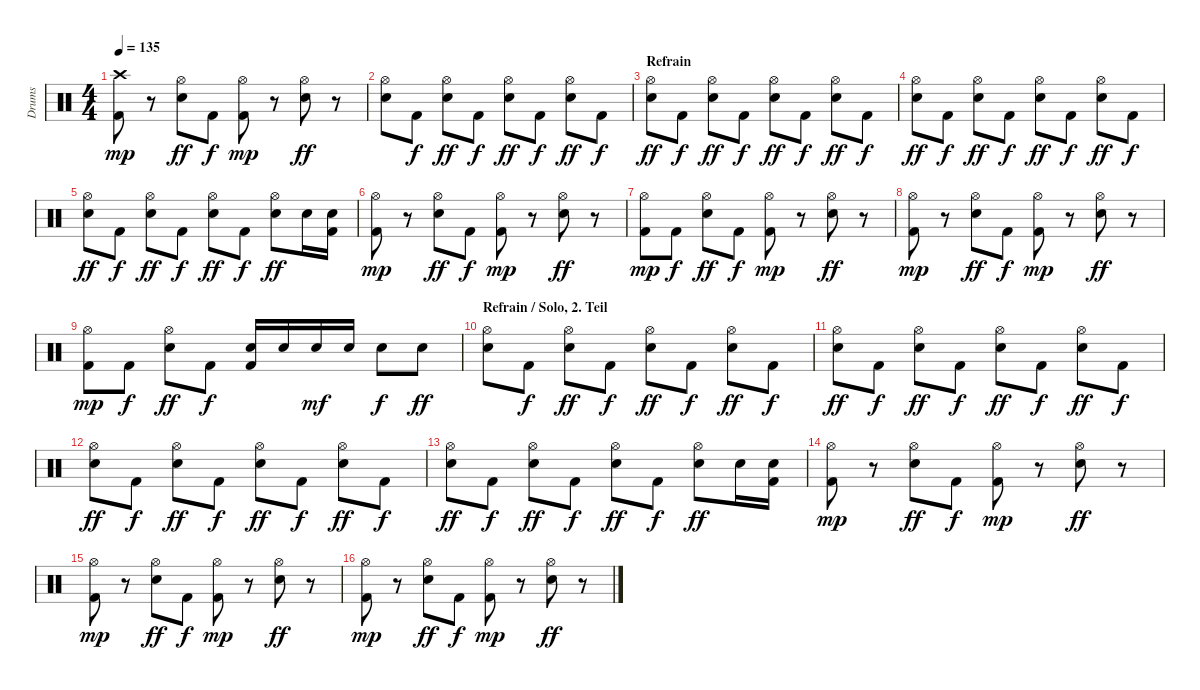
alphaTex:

\track ("Drums" "Drums") {instrument percussion}
\staff {score}
\articulation defaults
\ts (4 4)
\tempo 135
\clef neutral
\ks c
("Crash high (hit)" "Kick (hit) 2").8{dy mp} r.8 ("Hi-Hat (open)" "Electric Snare (hit)").8{dy ff} "Kick (hit) 2".8{dy f} ("Hi-Hat (open)" "Kick (hit) 2").8{dy mp} r.8 ("Hi-Hat (open)" "Electric Snare (hit)").8{dy ff} r.8 |
("Hi-Hat (open)" "Electric Snare (hit)").8{volume 15} "Kick (hit) 2".8{dy f} ("Hi-Hat (open)" "Electric Snare (hit)").8{dy ff} "Kick (hit) 2".8{dy f} ("Hi-Hat (open)" "Electric Snare (hit)").8{dy ff} "Kick (hit) 2".8{dy f} ("Hi-Hat (open)" "Electric Snare (hit)").8{dy ff} "Kick (hit) 2".8{dy f} |
\section ("" "Refrain")
("Hi-Hat (open)" "Electric Snare (hit)").8{dy ff} "Kick (hit) 2".8{dy f} ("Hi-Hat (open)" "Electric Snare (hit)").8{dy ff} "Kick (hit) 2".8{dy f} ("Hi-Hat (open)" "Electric Snare (hit)").8{dy ff} "Kick (hit) 2".8{dy f} ("Hi-Hat (open)" "Electric Snare (hit)").8{dy ff} "Kick (hit) 2".8{dy f} |
("Hi-Hat (open)" "Electric Snare (hit)").8{dy ff} "Kick (hit) 2".8{dy f} ("Hi-Hat (open)" "Electric Snare (hit)").8{dy ff} "Kick (hit) 2".8{dy f} ("Hi-Hat (open)" "Electric Snare (hit)").8{dy ff} "Kick (hit) 2".8{dy f} ("Hi-Hat (open)" "Electric Snare (hit)").8{dy ff} "Kick (hit) 2".8{dy f} |
("Hi-Hat (open)" "Electric Snare (hit)").8{dy ff} "Kick (hit) 2".8{dy f} ("Hi-Hat (open)" "Electric Snare (hit)").8{dy ff} "Kick (hit) 2".8{dy f} ("Hi-Hat (open)" "Electric Snare (hit)").8{dy ff} "Kick (hit) 2".8{dy f} ("Hi-Hat (open)" "Electric Snare (hit)").8{dy ff} "Electric Snare (hit)".16 ("Kick (hit) 2" "Electric Snare (hit)").16 |
("Hi-Hat (open)" "Kick (hit) 2").8{dy mp} r.8 ("Hi-Hat (open)" "Electric Snare (hit)").8{dy ff} "Kick (hit) 2".8{dy f} ("Hi-Hat (open)" "Kick (hit) 2").8{dy mp} r.8 ("Hi-Hat (open)" "Electric Snare (hit)").8{dy ff} r.8 |
("Hi-Hat (open)" "Kick (hit) 2").8{dy mp} "Kick (hit) 2".8{dy f} ("Hi-Hat (open)" "Electric Snare (hit)").8{dy ff} "Kick (hit) 2".8{dy f} ("Hi-Hat (open)" "Kick (hit) 2").8{dy mp} r.8 ("Hi-Hat (open)" "Electric Snare (hit)").8{dy ff} r.8 |
("Hi-Hat (open)" "Kick (hit) 2").8{dy mp} r.8 ("Hi-Hat (open)" "Electric Snare (hit)").8{dy ff} "Kick (hit) 2".8{dy f} ("Hi-Hat (open)" "Kick (hit) 2").8{dy mp} r.8 ("Hi-Hat (open)" "Electric Snare (hit)").8{dy ff} r.8 |
("Hi-Hat (open)" "Kick (hit) 2").8{dy mp volume 13} "Kick (hit) 2".8{dy f} ("Hi-Hat (open)" "Electric Snare (hit)").8{dy ff} "Kick (hit) 2".8{dy f} ("Kick (hit) 2" "Electric Snare (hit)").16 "Electric Snare (hit)".16 "Electric Snare (hit)".16{dy mf} "Electric Snare (hit)".16 "Electric Snare (hit)".8{dy f} "Electric Snare (hit)".8{dy ff} |
\section ("" "Refrain / Solo, 2. Teil")
("Hi-Hat (open)" "Electric Snare (hit)").8 "Kick (hit) 2".8{dy f} ("Hi-Hat (open)" "Electric Snare (hit)").8{dy ff} "Kick (hit) 2".8{dy f} ("Hi-Hat (open)" "Electric Snare (hit)").8{dy ff} "Kick (hit) 2".8{dy f} ("Hi-Hat (open)" "Electric Snare (hit)").8{dy ff} "Kick (hit) 2".8{dy f} |
("Hi-Hat (open)" "Electric Snare (hit)").8{dy ff} "Kick (hit) 2".8{dy f} ("Hi-Hat (open)" "Electric Snare (hit)").8{dy ff} "Kick (hit) 2".8{dy f} ("Hi-Hat (open)" "Electric Snare (hit)").8{dy ff} "Kick (hit) 2".8{dy f} ("Hi-Hat (open)" "Electric Snare (hit)").8{dy ff} "Kick (hit) 2".8{dy f} |
("Hi-Hat (open)" "Electric Snare (hit)").8{dy ff} "Kick (hit) 2".8{dy f} ("Hi-Hat (open)" "Electric Snare (hit)").8{dy ff} "Kick (hit) 2".8{dy f} ("Hi-Hat (open)" "Electric Snare (hit)").8{dy ff} "Kick (hit) 2".8{dy f} ("Hi-Hat (open)" "Electric Snare (hit)").8{dy ff} "Kick (hit) 2".8{dy f} |
("Hi-Hat (open)" "Electric Snare (hit)").8{dy ff} "Kick (hit) 2".8{dy f} ("Hi-Hat (open)" "Electric Snare (hit)").8{dy ff} "Kick (hit) 2".8{dy f} ("Hi-Hat (open)" "Electric Snare (hit)").8{dy ff} "Kick (hit) 2".8{dy f} ("Hi-Hat (open)" "Electric Snare (hit)").8{dy ff} "Electric Snare (hit)".16 ("Kick (hit) 2" "Electric Snare (hit)").16 |
("Hi-Hat (open)" "Kick (hit) 2").8{dy mp} r.8 ("Hi-Hat (open)" "Electric Snare (hit)").8{dy ff} "Kick (hit) 2".8{dy f} ("Hi-Hat (open)" "Kick (hit) 2").8{dy mp} r.8 ("Hi-Hat (open)" "Electric Snare (hit)").8{dy ff} r.8 |
("Hi-Hat (open)" "Kick (hit) 2").8{dy mp} r.8 ("Hi-Hat (open)" "Electric Snare (hit)").8{dy ff} "Kick (hit) 2".8{dy f} ("Hi-Hat (open)" "Kick (hit) 2").8{dy mp} r.8 ("Hi-Hat (open)" "Electric Snare (hit)").8{dy ff} r.8 |
("Hi-Hat (open)" "Kick (hit) 2").8{dy mp} r.8 ("Hi-Hat (open)" "Electric Snare (hit)").8{dy ff} "Kick (hit) 2".8{dy f} ("Hi-Hat (open)" "Kick (hit) 2").8{dy mp} r.8 ("Hi-Hat (open)" "Electric Snare (hit)").8{dy ff} r.8
